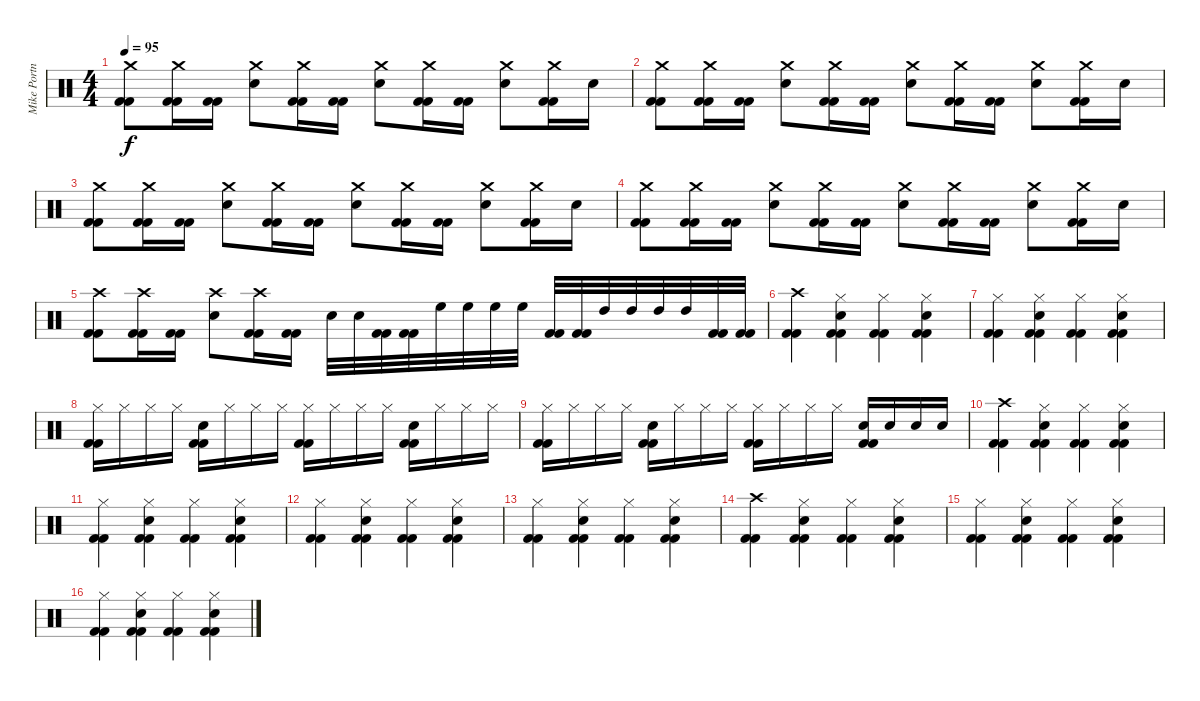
\track ("Mike Portnoy" "Mike Portn") {instrument percussion}
\staff {score}
\articulation defaults
\ts (4 4)
\tempo 95
\clef neutral
\ks c
("Crash medium (hit)" "Kick (hit) 2" "Kick (hit) 2").8{dy f} ("Crash medium (hit)" "Kick (hit) 2" "Kick (hit) 2").16 ("Kick (hit) 2" "Kick (hit) 2").16 ("Crash medium (hit)" "Snare (hit) 2").8 ("Crash medium (hit)" "Kick (hit) 2" "Kick (hit) 2").16 ("Kick (hit) 2" "Kick (hit) 2").16 ("Crash medium (hit)" "Snare (hit) 2").8 ("Crash medium (hit)" "Kick (hit) 2" "Kick (hit) 2").16 ("Kick (hit) 2" "Kick (hit) 2").16 ("Crash medium (hit)" "Snare (hit) 2").8 ("Crash medium (hit)" "Kick (hit) 2" "Kick (hit) 2").16 "Snare (hit) 2".16 |
("Crash medium (hit)" "Kick (hit) 2" "Kick (hit) 2").8 ("Crash medium (hit)" "Kick (hit) 2" "Kick (hit) 2").16 ("Kick (hit) 2" "Kick (hit) 2").16 ("Crash medium (hit)" "Snare (hit) 2").8 ("Crash medium (hit)" "Kick (hit) 2" "Kick (hit) 2").16 ("Kick (hit) 2" "Kick (hit) 2").16 ("Crash medium (hit)" "Snare (hit) 2").8 ("Crash medium (hit)" "Kick (hit) 2" "Kick (hit) 2").16 ("Kick (hit) 2" "Kick (hit) 2").16 ("Crash medium (hit)" "Snare (hit) 2").8 ("Crash medium (hit)" "Kick (hit) 2" "Kick (hit) 2").16 "Snare (hit) 2".16 |
("Crash medium (hit)" "Kick (hit) 2" "Kick (hit) 2").8 ("Crash medium (hit)" "Kick (hit) 2" "Kick (hit) 2").16 ("Kick (hit) 2" "Kick (hit) 2").16 ("Crash medium (hit)" "Snare (hit) 2").8 ("Crash medium (hit)" "Kick (hit) 2" "Kick (hit) 2").16 ("Kick (hit) 2" "Kick (hit) 2").16 ("Crash medium (hit)" "Snare (hit) 2").8 ("Crash medium (hit)" "Kick (hit) 2" "Kick (hit) 2").16 ("Kick (hit) 2" "Kick (hit) 2").16 ("Crash medium (hit)" "Snare (hit) 2").8 ("Crash medium (hit)" "Kick (hit) 2" "Kick (hit) 2").16 "Snare (hit) 2".16 |
("Crash medium (hit)" "Kick (hit) 2" "Kick (hit) 2").8 ("Crash medium (hit)" "Kick (hit) 2" "Kick (hit) 2").16 ("Kick (hit) 2" "Kick (hit) 2").16 ("Crash medium (hit)" "Snare (hit) 2").8 ("Crash medium (hit)" "Kick (hit) 2" "Kick (hit) 2").16 ("Kick (hit) 2" "Kick (hit) 2").16 ("Crash medium (hit)" "Snare (hit) 2").8 ("Crash medium (hit)" "Kick (hit) 2" "Kick (hit) 2").16 ("Kick (hit) 2" "Kick (hit) 2").16 ("Crash medium (hit)" "Snare (hit) 2").8 ("Crash medium (hit)" "Kick (hit) 2" "Kick (hit) 2").16 "Snare (hit) 2".16 |
("Crash high (hit)" "Kick (hit) 2" "Kick (hit) 2").8 ("Crash high (hit)" "Kick (hit) 2" "Kick (hit) 2").16 ("Kick (hit) 2" "Kick (hit) 2").16 ("Crash high (hit)" "Snare (hit) 2").8 ("Crash high (hit)" "Kick (hit) 2" "Kick (hit) 2").16 ("Kick (hit) 2" "Kick (hit) 2").16 "Snare (hit) 2".32 "Snare (hit) 2".32 ("Kick (hit) 2" "Kick (hit) 2").32 ("Kick (hit) 2" "Kick (hit) 2").32 "High Floor Tom (hit)".32 "High Floor Tom (hit)".32 "High Floor Tom (hit)".32 "High Floor Tom (hit)".32 ("Kick (hit) 2" "Kick (hit) 2").32 ("Kick (hit) 2" "Kick (hit) 2").32 "High Tom (hit)".32 "High Tom (hit)".32 "High Tom (hit)".32 "High Tom (hit)".32 ("Kick (hit) 2" "Kick (hit) 2").32 ("Kick (hit) 2" "Kick (hit) 2").32 |
("Crash high (hit)" "Kick (hit) 2" "Kick (hit) 2").4 ("Hi-Hat (closed)" "Snare (hit) 2" "Kick (hit) 2" "Kick (hit) 2").4 ("Hi-Hat (closed)" "Kick (hit) 2" "Kick (hit) 2").4 ("Hi-Hat (closed)" "Snare (hit) 2" "Kick (hit) 2" "Kick (hit) 2").4 |
("Hi-Hat (closed)" "Kick (hit) 2" "Kick (hit) 2").4 ("Hi-Hat (closed)" "Snare (hit) 2" "Kick (hit) 2" "Kick (hit) 2").4 ("Hi-Hat (closed)" "Kick (hit) 2" "Kick (hit) 2").4 ("Hi-Hat (closed)" "Snare (hit) 2" "Kick (hit) 2" "Kick (hit) 2").4 |
("Hi-Hat (closed)" "Kick (hit) 2" "Kick (hit) 2").16 "Hi-Hat (closed)".16 "Hi-Hat (closed)".16 "Hi-Hat (closed)".16 ("Snare (hit) 2" "Kick (hit) 2" "Kick (hit) 2").16 "Hi-Hat (closed)".16 "Hi-Hat (closed)".16 "Hi-Hat (closed)".16 ("Hi-Hat (closed)" "Kick (hit) 2" "Kick (hit) 2").16 "Hi-Hat (closed)".16 "Hi-Hat (closed)".16 "Hi-Hat (closed)".16 ("Snare (hit) 2" "Kick (hit) 2" "Kick (hit) 2").16 "Hi-Hat (closed)".16 "Hi-Hat (closed)".16 "Hi-Hat (closed)".16 |
("Hi-Hat (closed)" "Kick (hit) 2" "Kick (hit) 2").16 "Hi-Hat (closed)".16 "Hi-Hat (closed)".16 "Hi-Hat (closed)".16 ("Snare (hit) 2" "Kick (hit) 2" "Kick (hit) 2").16 "Hi-Hat (closed)".16 "Hi-Hat (closed)".16 "Hi-Hat (closed)".16 ("Hi-Hat (closed)" "Kick (hit) 2" "Kick (hit) 2").16 "Hi-Hat (closed)".16 "Hi-Hat (closed)".16 "Hi-Hat (closed)".16 ("Snare (hit) 2" "Kick (hit) 2" "Kick (hit) 2").16 "Snare (hit) 2".16 "Snare (hit) 2".16 "Snare (hit) 2".16 |
("Crash high (hit)" "Kick (hit) 2" "Kick (hit) 2").4 ("Hi-Hat (closed)" "Snare (hit) 2" "Kick (hit) 2" "Kick (hit) 2").4 ("Hi-Hat (closed)" "Kick (hit) 2" "Kick (hit) 2").4 ("Hi-Hat (closed)" "Snare (hit) 2" "Kick (hit) 2" "Kick (hit) 2").4 |
("Hi-Hat (closed)" "Kick (hit) 2" "Kick (hit) 2").4 ("Hi-Hat (closed)" "Snare (hit) 2" "Kick (hit) 2" "Kick (hit) 2").4 ("Hi-Hat (closed)" "Kick (hit) 2" "Kick (hit) 2").4 ("Hi-Hat (closed)" "Snare (hit) 2" "Kick (hit) 2" "Kick (hit) 2").4 |
("Hi-Hat (closed)" "Kick (hit) 2" "Kick (hit) 2").4 ("Hi-Hat (closed)" "Snare (hit) 2" "Kick (hit) 2" "Kick (hit) 2").4 ("Hi-Hat (closed)" "Kick (hit) 2" "Kick (hit) 2").4 ("Hi-Hat (closed)" "Snare (hit) 2" "Kick (hit) 2" "Kick (hit) 2").4 |
("Hi-Hat (closed)" "Kick (hit) 2" "Kick (hit) 2").4 ("Hi-Hat (closed)" "Snare (hit) 2" "Kick (hit) 2" "Kick (hit) 2").4 ("Hi-Hat (closed)" "Kick (hit) 2" "Kick (hit) 2").4 ("Hi-Hat (closed)" "Snare (hit) 2" "Kick (hit) 2" "Kick (hit) 2").4 |
("Crash high (hit)" "Kick (hit) 2" "Kick (hit) 2").4 ("Hi-Hat (closed)" "Snare (hit) 2" "Kick (hit) 2" "Kick (hit) 2").4 ("Hi-Hat (closed)" "Kick (hit) 2" "Kick (hit) 2").4 ("Hi-Hat (closed)" "Snare (hit) 2" "Kick (hit) 2" "Kick (hit) 2").4 |
("Hi-Hat (closed)" "Kick (hit) 2" "Kick (hit) 2").4 ("Hi-Hat (closed)" "Snare (hit) 2" "Kick (hit) 2" "Kick (hit) 2").4 ("Hi-Hat (closed)" "Kick (hit) 2" "Kick (hit) 2").4 ("Hi-Hat (closed)" "Snare (hit) 2" "Kick (hit) 2" "Kick (hit) 2").4 |
("Hi-Hat (closed)" "Kick (hit) 2" "Kick (hit) 2").4 ("Hi-Hat (closed)" "Snare (hit) 2" "Kick (hit) 2" "Kick (hit) 2").4 ("Hi-Hat (closed)" "Kick (hit) 2" "Kick (hit) 2").4 ("Hi-Hat (closed)" "Snare (hit) 2" "Kick (hit) 2" "Kick (hit) 2").4
